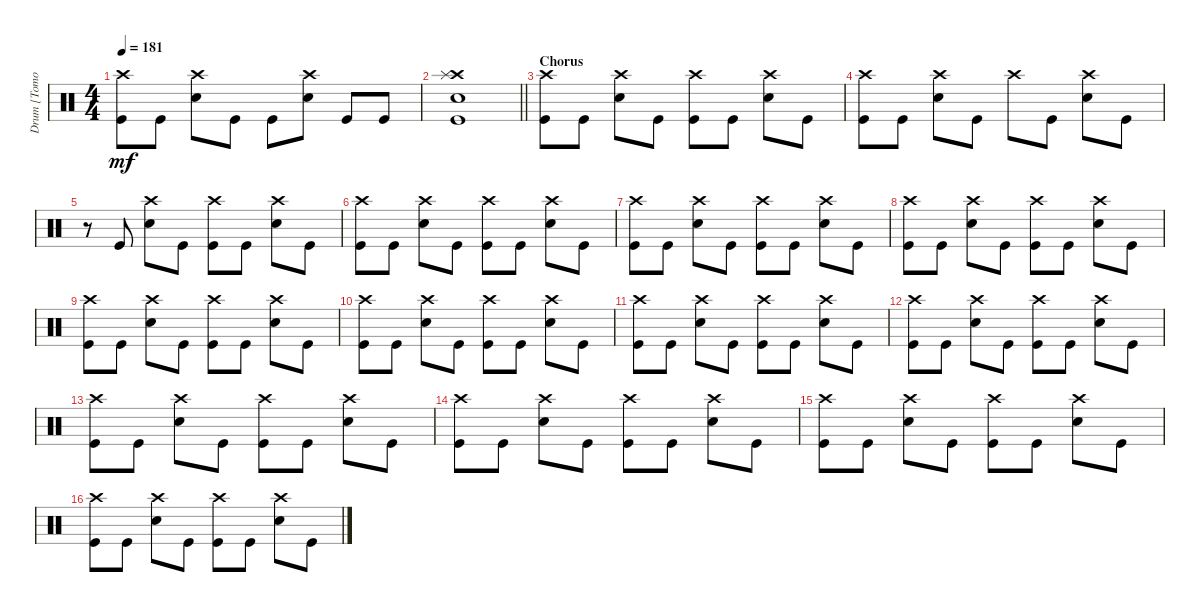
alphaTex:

\track ("Drum [Tomoya]" "Drum [Tomo") {instrument percussion}
\staff {score}
\articulation defaults
\ts (4 4)
\tempo 181
\clef neutral
\ks c
("Kick (hit)" "Crash high (hit)").8{dy mf} "Kick (hit)".8 ("Snare (hit) 2" "Crash high (hit)").8 "Kick (hit)".8 "Kick (hit)".8 ("Snare (hit) 2" "Crash high (hit)").8 "Kick (hit)".8 "Kick (hit)".8 |
\barLineRight lightlight
("Snare (hit) 2" "Crash high (hit)" "Splash (hit)" "Kick (hit)").1 |
\section ("" "Chorus")
("Kick (hit)" "Crash high (hit)").8 "Kick (hit)".8 ("Snare (hit) 2" "Crash high (hit)").8 "Kick (hit)".8 ("Kick (hit)" "Crash high (hit)").8 "Kick (hit)".8 ("Snare (hit) 2" "Crash high (hit)").8 "Kick (hit)".8 |
("Kick (hit)" "Crash high (hit)").8 "Kick (hit)".8 ("Snare (hit) 2" "Crash high (hit)").8 "Kick (hit)".8 "Crash high (hit)".8 "Kick (hit)".8 ("Snare (hit) 2" "Crash high (hit)").8 "Kick (hit)".8 |
r.8 "Kick (hit)".8 ("Snare (hit) 2" "Crash high (hit)").8 "Kick (hit)".8 ("Kick (hit)" "Crash high (hit)").8 "Kick (hit)".8 ("Snare (hit) 2" "Crash high (hit)").8 "Kick (hit)".8 |
("Kick (hit)" "Crash high (hit)").8 "Kick (hit)".8 ("Snare (hit) 2" "Crash high (hit)").8 "Kick (hit)".8 ("Kick (hit)" "Crash high (hit)").8 "Kick (hit)".8 ("Snare (hit) 2" "Crash high (hit)").8 "Kick (hit)".8 |
("Kick (hit)" "Crash high (hit)").8 "Kick (hit)".8 ("Snare (hit) 2" "Crash high (hit)").8 "Kick (hit)".8 ("Kick (hit)" "Crash high (hit)").8 "Kick (hit)".8 ("Snare (hit) 2" "Crash high (hit)").8 "Kick (hit)".8 |
("Kick (hit)" "Crash high (hit)").8 "Kick (hit)".8 ("Snare (hit) 2" "Crash high (hit)").8 "Kick (hit)".8 ("Kick (hit)" "Crash high (hit)").8 "Kick (hit)".8 ("Snare (hit) 2" "Crash high (hit)").8 "Kick (hit)".8 |
("Kick (hit)" "Crash high (hit)").8 "Kick (hit)".8 ("Snare (hit) 2" "Crash high (hit)").8 "Kick (hit)".8 ("Kick (hit)" "Crash high (hit)").8 "Kick (hit)".8 ("Snare (hit) 2" "Crash high (hit)").8 "Kick (hit)".8 |
("Kick (hit)" "Crash high (hit)").8 "Kick (hit)".8 ("Snare (hit) 2" "Crash high (hit)").8 "Kick (hit)".8 ("Kick (hit)" "Crash high (hit)").8 "Kick (hit)".8 ("Snare (hit) 2" "Crash high (hit)").8 "Kick (hit)".8 |
("Kick (hit)" "Crash high (hit)").8 "Kick (hit)".8 ("Snare (hit) 2" "Crash high (hit)").8 "Kick (hit)".8 ("Kick (hit)" "Crash high (hit)").8 "Kick (hit)".8 ("Snare (hit) 2" "Crash high (hit)").8 "Kick (hit)".8 |
("Kick (hit)" "Crash high (hit)").8 "Kick (hit)".8 ("Snare (hit) 2" "Crash high (hit)").8 "Kick (hit)".8 ("Kick (hit)" "Crash high (hit)").8 "Kick (hit)".8 ("Snare (hit) 2" "Crash high (hit)").8 "Kick (hit)".8 |
("Kick (hit)" "Crash high (hit)").8 "Kick (hit)".8 ("Snare (hit) 2" "Crash high (hit)").8 "Kick (hit)".8 ("Kick (hit)" "Crash high (hit)").8 "Kick (hit)".8 ("Snare (hit) 2" "Crash high (hit)").8 "Kick (hit)".8 |
("Kick (hit)" "Crash high (hit)").8 "Kick (hit)".8 ("Snare (hit) 2" "Crash high (hit)").8 "Kick (hit)".8 ("Kick (hit)" "Crash high (hit)").8 "Kick (hit)".8 ("Snare (hit) 2" "Crash high (hit)").8 "Kick (hit)".8 |
("Kick (hit)" "Crash high (hit)").8 "Kick (hit)".8 ("Snare (hit) 2" "Crash high (hit)").8 "Kick (hit)".8 ("Kick (hit)" "Crash high (hit)").8 "Kick (hit)".8 ("Snare (hit) 2" "Crash high (hit)").8 "Kick (hit)".8 |
("Kick (hit)" "Crash high (hit)").8 "Kick (hit)".8 ("Snare (hit) 2" "Crash high (hit)").8 "Kick (hit)".8 ("Kick (hit)" "Crash high (hit)").8 "Kick (hit)".8 ("Snare (hit) 2" "Crash high (hit)").8 "Kick (hit)".8
